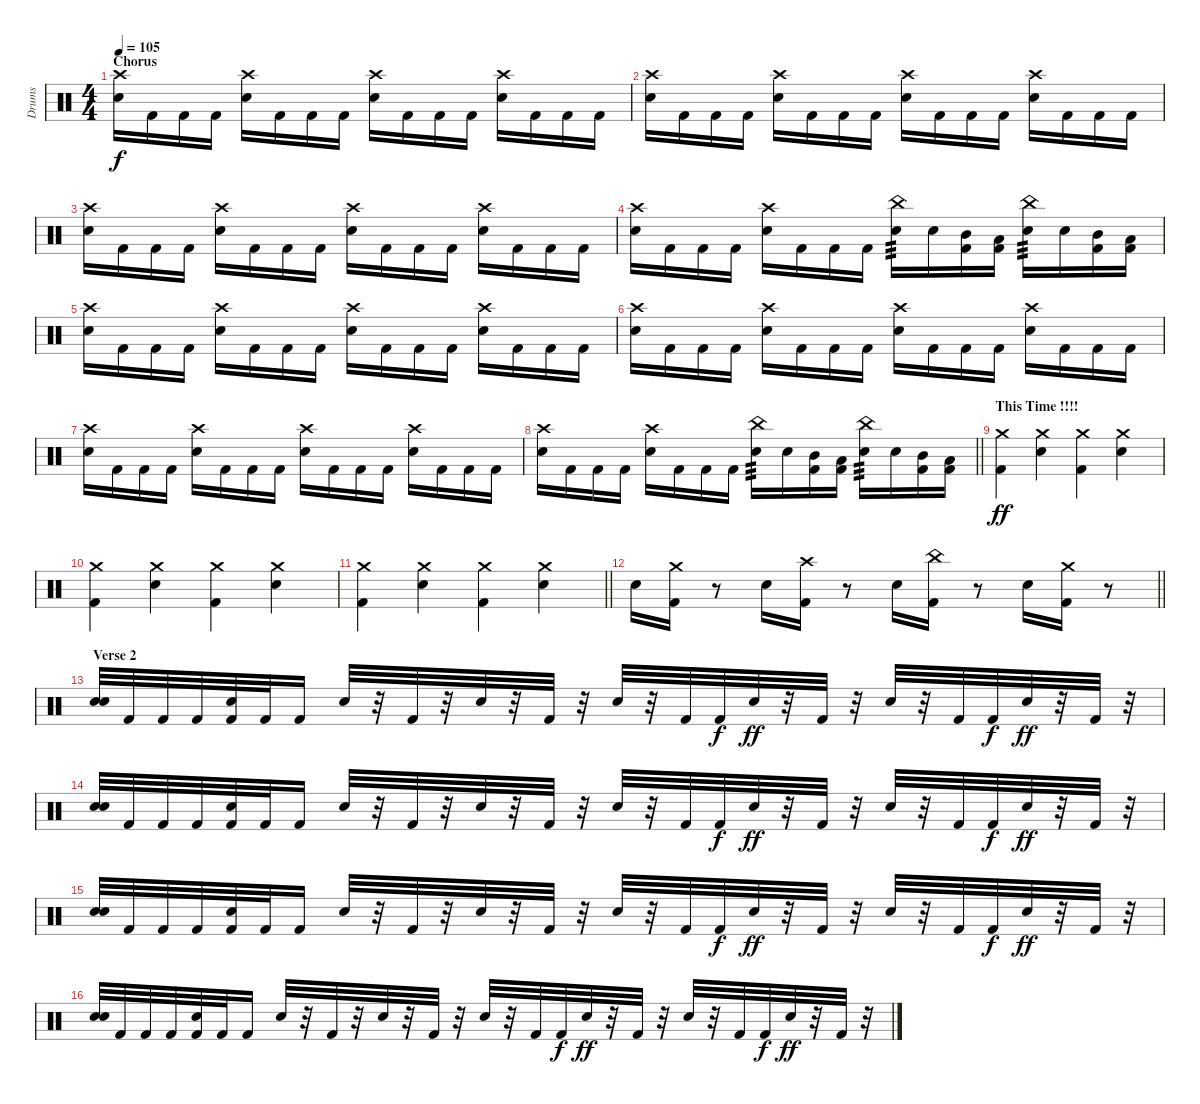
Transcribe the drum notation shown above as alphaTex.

\track ("Drums" "Drums") {instrument percussion}
\staff {score}
\articulation defaults
\ts (4 4)
\section ("" "Chorus")
\tempo 105
\clef neutral
\ks c
("Crash high (hit)" "Snare (hit) 2").16{dy f} "Kick (hit) 2".16 "Kick (hit) 2".16 "Kick (hit) 2".16 ("Crash high (hit)" "Snare (hit) 2").16 "Kick (hit) 2".16 "Kick (hit) 2".16 "Kick (hit) 2".16 ("Crash high (hit)" "Snare (hit) 2").16 "Kick (hit) 2".16 "Kick (hit) 2".16 "Kick (hit) 2".16 ("Crash high (hit)" "Snare (hit) 2").16 "Kick (hit) 2".16 "Kick (hit) 2".16 "Kick (hit) 2".16 |
("Crash high (hit)" "Snare (hit) 2").16 "Kick (hit) 2".16 "Kick (hit) 2".16 "Kick (hit) 2".16 ("Crash high (hit)" "Snare (hit) 2").16 "Kick (hit) 2".16 "Kick (hit) 2".16 "Kick (hit) 2".16 ("Crash high (hit)" "Snare (hit) 2").16 "Kick (hit) 2".16 "Kick (hit) 2".16 "Kick (hit) 2".16 ("Crash high (hit)" "Snare (hit) 2").16 "Kick (hit) 2".16 "Kick (hit) 2".16 "Kick (hit) 2".16 |
("Crash high (hit)" "Snare (hit) 2").16 "Kick (hit) 2".16 "Kick (hit) 2".16 "Kick (hit) 2".16 ("Crash high (hit)" "Snare (hit) 2").16 "Kick (hit) 2".16 "Kick (hit) 2".16 "Kick (hit) 2".16 ("Crash high (hit)" "Snare (hit) 2").16 "Kick (hit) 2".16 "Kick (hit) 2".16 "Kick (hit) 2".16 ("Crash high (hit)" "Snare (hit) 2").16 "Kick (hit) 2".16 "Kick (hit) 2".16 "Kick (hit) 2".16 |
("Crash high (hit)" "Snare (hit) 2").16 "Kick (hit) 2".16 "Kick (hit) 2".16 "Kick (hit) 2".16 ("Crash high (hit)" "Snare (hit) 2").16 "Kick (hit) 2".16 "Kick (hit) 2".16 "Kick (hit) 2".16 ("China (hit)" "Snare (hit) 2").16{tp 3} "Snare (hit) 2".16 ("Mid Tom (hit)" "Kick (hit) 2").16 ("Low Tom (hit)" "Kick (hit) 2").16 ("China (hit)" "Snare (hit) 2").16{tp 3} "Snare (hit) 2".16 ("Mid Tom (hit)" "Kick (hit) 2").16 ("Low Tom (hit)" "Kick (hit) 2").16 |
("Crash high (hit)" "Snare (hit) 2").16 "Kick (hit) 2".16 "Kick (hit) 2".16 "Kick (hit) 2".16 ("Crash high (hit)" "Snare (hit) 2").16 "Kick (hit) 2".16 "Kick (hit) 2".16 "Kick (hit) 2".16 ("Crash high (hit)" "Snare (hit) 2").16 "Kick (hit) 2".16 "Kick (hit) 2".16 "Kick (hit) 2".16 ("Crash high (hit)" "Snare (hit) 2").16 "Kick (hit) 2".16 "Kick (hit) 2".16 "Kick (hit) 2".16 |
("Crash high (hit)" "Snare (hit) 2").16 "Kick (hit) 2".16 "Kick (hit) 2".16 "Kick (hit) 2".16 ("Crash high (hit)" "Snare (hit) 2").16 "Kick (hit) 2".16 "Kick (hit) 2".16 "Kick (hit) 2".16 ("Crash high (hit)" "Snare (hit) 2").16 "Kick (hit) 2".16 "Kick (hit) 2".16 "Kick (hit) 2".16 ("Crash high (hit)" "Snare (hit) 2").16 "Kick (hit) 2".16 "Kick (hit) 2".16 "Kick (hit) 2".16 |
("Crash high (hit)" "Snare (hit) 2").16 "Kick (hit) 2".16 "Kick (hit) 2".16 "Kick (hit) 2".16 ("Crash high (hit)" "Snare (hit) 2").16 "Kick (hit) 2".16 "Kick (hit) 2".16 "Kick (hit) 2".16 ("Crash high (hit)" "Snare (hit) 2").16 "Kick (hit) 2".16 "Kick (hit) 2".16 "Kick (hit) 2".16 ("Crash high (hit)" "Snare (hit) 2").16 "Kick (hit) 2".16 "Kick (hit) 2".16 "Kick (hit) 2".16 |
\barLineRight lightlight
("Crash high (hit)" "Snare (hit) 2").16 "Kick (hit) 2".16 "Kick (hit) 2".16 "Kick (hit) 2".16 ("Crash high (hit)" "Snare (hit) 2").16 "Kick (hit) 2".16 "Kick (hit) 2".16 "Kick (hit) 2".16 ("China (hit)" "Snare (hit) 2").16{tp 3} "Snare (hit) 2".16 ("Mid Tom (hit)" "Kick (hit) 2").16 ("Low Tom (hit)" "Kick (hit) 2").16 ("China (hit)" "Snare (hit) 2").16{tp 3} "Snare (hit) 2".16 ("Mid Tom (hit)" "Kick (hit) 2").16 ("Low Tom (hit)" "Kick (hit) 2").16 |
\section ("" "This Time !!!!")
("Crash medium (hit)" "Kick (hit) 2").4{dy ff} ("Crash medium (hit)" "Snare (hit) 2").4 ("Crash medium (hit)" "Kick (hit) 2").4 ("Crash medium (hit)" "Snare (hit) 2").4 |
("Crash medium (hit)" "Kick (hit) 2").4 ("Crash medium (hit)" "Snare (hit) 2").4 ("Crash medium (hit)" "Kick (hit) 2").4 ("Crash medium (hit)" "Snare (hit) 2").4 |
\barLineRight lightlight
("Crash medium (hit)" "Kick (hit) 2").4 ("Crash medium (hit)" "Snare (hit) 2").4 ("Crash medium (hit)" "Kick (hit) 2").4 ("Crash medium (hit)" "Snare (hit) 2").4 |
\barLineRight lightlight "Snare (hit) 2".16
("Crash medium (hit)" "Kick (hit) 2").16 r.8 "Snare (hit) 2".16 ("Crash high (hit)" "Kick (hit) 2").16 r.8 "Snare (hit) 2".16 ("China (hit)" "Kick (hit) 2").16 r.8 "Snare (hit) 2".16 ("Crash medium (hit)" "Kick (hit) 2").16 r.8 |
\section ("" " Verse 2")
("Snare (hit) 2" "Snare (hit) 2").32 "Kick (hit) 2".32 "Kick (hit) 2".32 "Kick (hit) 2".32 ("Snare (hit) 2" "Kick (hit) 2").32 "Kick (hit) 2".32 "Kick (hit) 2".16 "Snare (hit) 2".32 r.32 "Kick (hit) 2".32 r.32 "Snare (hit) 2".32 r.32 "Kick (hit) 2".32 r.32 "Snare (hit) 2".32 r.32 "Kick (hit) 2".32 "Kick (hit) 2".32{dy f} "Snare (hit) 2".32{dy ff} r.32 "Kick (hit) 2".32 r.32 "Snare (hit) 2".32 r.32 "Kick (hit) 2".32 "Kick (hit) 2".32{dy f} "Snare (hit) 2".32{dy ff} r.32 "Kick (hit) 2".32 r.32 |
("Snare (hit) 2" "Snare (hit) 2").32 "Kick (hit) 2".32 "Kick (hit) 2".32 "Kick (hit) 2".32 ("Snare (hit) 2" "Kick (hit) 2").32 "Kick (hit) 2".32 "Kick (hit) 2".16 "Snare (hit) 2".32 r.32 "Kick (hit) 2".32 r.32 "Snare (hit) 2".32 r.32 "Kick (hit) 2".32 r.32 "Snare (hit) 2".32 r.32 "Kick (hit) 2".32 "Kick (hit) 2".32{dy f} "Snare (hit) 2".32{dy ff} r.32 "Kick (hit) 2".32 r.32 "Snare (hit) 2".32 r.32 "Kick (hit) 2".32 "Kick (hit) 2".32{dy f} "Snare (hit) 2".32{dy ff} r.32 "Kick (hit) 2".32 r.32 |
("Snare (hit) 2" "Snare (hit) 2").32 "Kick (hit) 2".32 "Kick (hit) 2".32 "Kick (hit) 2".32 ("Snare (hit) 2" "Kick (hit) 2").32 "Kick (hit) 2".32 "Kick (hit) 2".16 "Snare (hit) 2".32 r.32 "Kick (hit) 2".32 r.32 "Snare (hit) 2".32 r.32 "Kick (hit) 2".32 r.32 "Snare (hit) 2".32 r.32 "Kick (hit) 2".32 "Kick (hit) 2".32{dy f} "Snare (hit) 2".32{dy ff} r.32 "Kick (hit) 2".32 r.32 "Snare (hit) 2".32 r.32 "Kick (hit) 2".32 "Kick (hit) 2".32{dy f} "Snare (hit) 2".32{dy ff} r.32 "Kick (hit) 2".32 r.32 |
("Snare (hit) 2" "Snare (hit) 2").32 "Kick (hit) 2".32 "Kick (hit) 2".32 "Kick (hit) 2".32 ("Snare (hit) 2" "Kick (hit) 2").32 "Kick (hit) 2".32 "Kick (hit) 2".16 "Snare (hit) 2".32 r.32 "Kick (hit) 2".32 r.32 "Snare (hit) 2".32 r.32 "Kick (hit) 2".32 r.32 "Snare (hit) 2".32 r.32 "Kick (hit) 2".32 "Kick (hit) 2".32{dy f} "Snare (hit) 2".32{dy ff} r.32 "Kick (hit) 2".32 r.32 "Snare (hit) 2".32 r.32 "Kick (hit) 2".32 "Kick (hit) 2".32{dy f} "Snare (hit) 2".32{dy ff} r.32 "Kick (hit) 2".32 r.32
